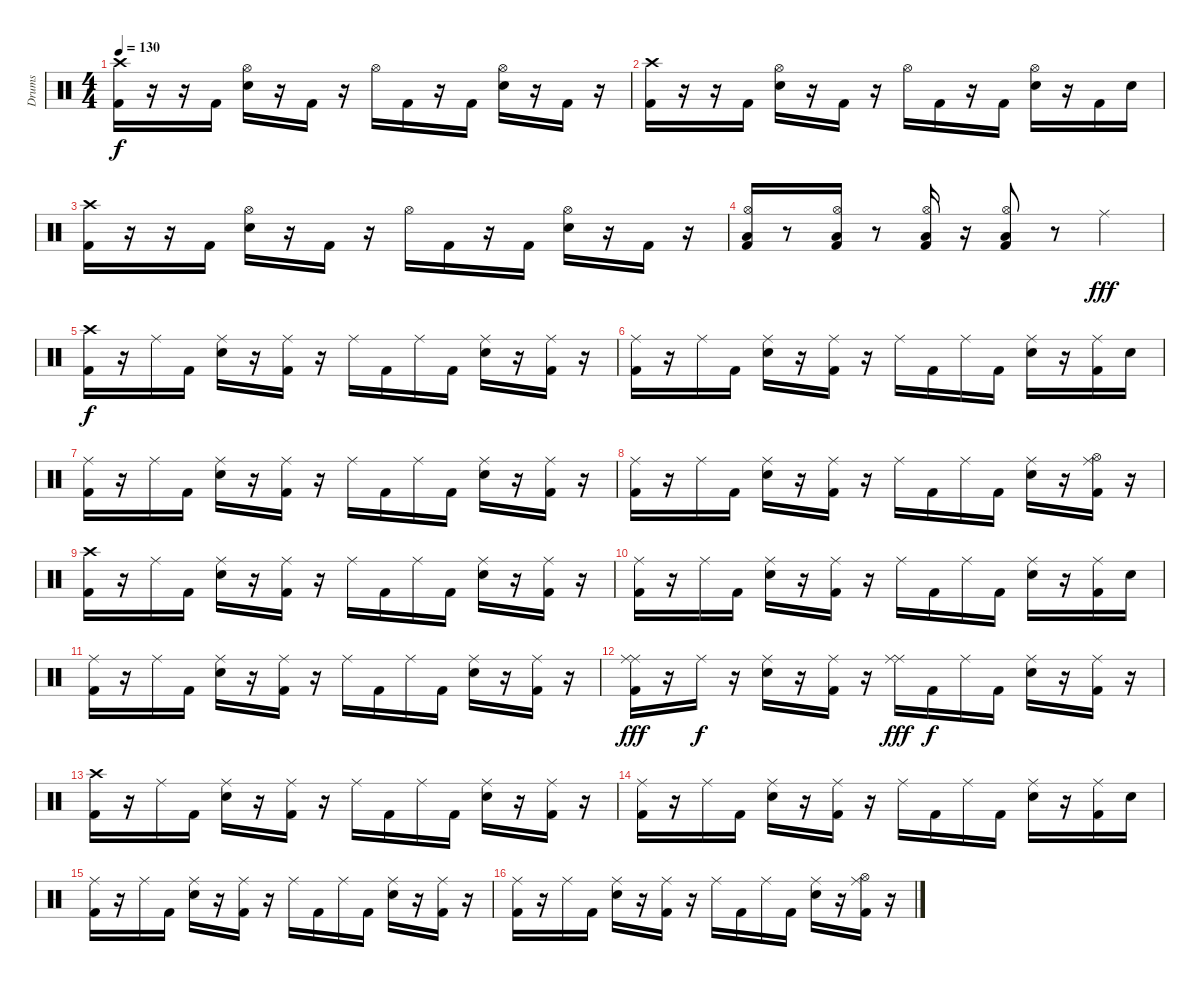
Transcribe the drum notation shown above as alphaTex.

\track ("Drums" "Drums") {instrument percussion}
\staff {score}
\articulation defaults
\ts (4 4)
\tempo 130
\clef neutral
\ks c
("Crash high (hit)" "Kick (hit) 2").16{dy f} r.16 r.16 "Kick (hit) 2".16 ("Hi-Hat (open)" "Electric Snare (hit)").16 r.16 "Kick (hit) 2".16 r.16 "Hi-Hat (open)".16 "Kick (hit) 2".16 r.16 "Kick (hit) 2".16 ("Hi-Hat (open)" "Electric Snare (hit)").16 r.16 "Kick (hit) 2".16 r.16 |
("Crash high (hit)" "Kick (hit) 2").16 r.16 r.16 "Kick (hit) 2".16 ("Hi-Hat (open)" "Electric Snare (hit)").16 r.16 "Kick (hit) 2".16 r.16 "Hi-Hat (open)".16 "Kick (hit) 2".16 r.16 "Kick (hit) 2".16 ("Hi-Hat (open)" "Electric Snare (hit)").16 r.16 "Kick (hit) 2".16 "Electric Snare (hit)".16 |
("Crash high (hit)" "Kick (hit) 2").16 r.16 r.16 "Kick (hit) 2".16 ("Hi-Hat (open)" "Electric Snare (hit)").16 r.16 "Kick (hit) 2".16 r.16 "Hi-Hat (open)".16 "Kick (hit) 2".16 r.16 "Kick (hit) 2".16 ("Hi-Hat (open)" "Electric Snare (hit)").16 r.16 "Kick (hit) 2".16 r.16 |
("Hi-Hat (open)" "Low Tom (hit)" "Kick (hit) 2").16 r.8 ("Hi-Hat (open)" "Low Tom (hit)" "Kick (hit) 2").16 r.8 ("Hi-Hat (open)" "Low Tom (hit)" "Kick (hit) 2").16 r.16 ("Hi-Hat (open)" "Low Tom (hit)" "Kick (hit) 2").8 r.8 "Ride (middle)".4{dy fff} |
("Crash high (hit)" "Kick (hit) 2").16{dy f} r.16 "Ride (middle)".16 "Kick (hit) 2".16 ("Ride (middle)" "Electric Snare (hit)").16 r.16 ("Ride (middle)" "Kick (hit) 2").16 r.16 "Ride (middle)".16 "Kick (hit) 2".16 "Ride (middle)".16 "Kick (hit) 2".16 ("Ride (middle)" "Electric Snare (hit)").16 r.16 ("Ride (middle)" "Kick (hit) 2").16 r.16 |
("Ride (middle)" "Kick (hit) 2").16 r.16 "Ride (middle)".16 "Kick (hit) 2".16 ("Ride (middle)" "Electric Snare (hit)").16 r.16 ("Ride (middle)" "Kick (hit) 2").16 r.16 "Ride (middle)".16 "Kick (hit) 2".16 "Ride (middle)".16 "Kick (hit) 2".16 ("Ride (middle)" "Electric Snare (hit)").16 r.16 ("Ride (middle)" "Kick (hit) 2").16 "Electric Snare (hit)".16 |
("Ride (middle)" "Kick (hit) 2").16 r.16 "Ride (middle)".16 "Kick (hit) 2".16 ("Ride (middle)" "Electric Snare (hit)").16 r.16 ("Ride (middle)" "Kick (hit) 2").16 r.16 "Ride (middle)".16 "Kick (hit) 2".16 "Ride (middle)".16 "Kick (hit) 2".16 ("Ride (middle)" "Electric Snare (hit)").16 r.16 ("Ride (middle)" "Kick (hit) 2").16 r.16 |
("Ride (middle)" "Kick (hit) 2").16 r.16 "Ride (middle)".16 "Kick (hit) 2".16 ("Ride (middle)" "Electric Snare (hit)").16 r.16 ("Ride (middle)" "Kick (hit) 2").16 r.16 "Ride (middle)".16 "Kick (hit) 2".16 "Ride (middle)".16 "Kick (hit) 2".16 ("Ride (middle)" "Electric Snare (hit)").16 r.16 ("Hi-Hat (open)" "Ride (middle)" "Kick (hit) 2").16 r.16 |
("Crash high (hit)" "Kick (hit) 2").16 r.16 "Ride (middle)".16 "Kick (hit) 2".16 ("Ride (middle)" "Electric Snare (hit)").16 r.16 ("Ride (middle)" "Kick (hit) 2").16 r.16 "Ride (middle)".16 "Kick (hit) 2".16 "Ride (middle)".16 "Kick (hit) 2".16 ("Ride (middle)" "Electric Snare (hit)").16 r.16 ("Ride (middle)" "Kick (hit) 2").16 r.16 |
("Ride (middle)" "Kick (hit) 2").16 r.16 "Ride (middle)".16 "Kick (hit) 2".16 ("Ride (middle)" "Electric Snare (hit)").16 r.16 ("Ride (middle)" "Kick (hit) 2").16 r.16 "Ride (middle)".16 "Kick (hit) 2".16 "Ride (middle)".16 "Kick (hit) 2".16 ("Ride (middle)" "Electric Snare (hit)").16 r.16 ("Ride (middle)" "Kick (hit) 2").16 "Electric Snare (hit)".16 |
("Ride (middle)" "Kick (hit) 2").16 r.16 "Ride (middle)".16 "Kick (hit) 2".16 ("Ride (middle)" "Electric Snare (hit)").16 r.16 ("Ride (middle)" "Kick (hit) 2").16 r.16 "Ride (middle)".16 "Kick (hit) 2".16 "Ride (middle)".16 "Kick (hit) 2".16 ("Ride (middle)" "Electric Snare (hit)").16 r.16 ("Ride (middle)" "Kick (hit) 2").16 r.16 |
("Ride (middle)" "Ride (middle)" "Kick (hit) 2").16{dy fff} r.16 "Ride (middle)".16{dy f} r.16 ("Ride (middle)" "Electric Snare (hit)").16 r.16 ("Ride (middle)" "Kick (hit) 2").16 r.16 ("Ride (middle)" "Ride (middle)").16{dy fff} "Kick (hit) 2".16{dy f} "Ride (middle)".16 "Kick (hit) 2".16 ("Ride (middle)" "Electric Snare (hit)").16 r.16 ("Ride (middle)" "Kick (hit) 2").16 r.16 |
("Crash high (hit)" "Kick (hit) 2").16 r.16 "Ride (middle)".16 "Kick (hit) 2".16 ("Ride (middle)" "Electric Snare (hit)").16 r.16 ("Ride (middle)" "Kick (hit) 2").16 r.16 "Ride (middle)".16 "Kick (hit) 2".16 "Ride (middle)".16 "Kick (hit) 2".16 ("Ride (middle)" "Electric Snare (hit)").16 r.16 ("Ride (middle)" "Kick (hit) 2").16 r.16 |
("Ride (middle)" "Kick (hit) 2").16 r.16 "Ride (middle)".16 "Kick (hit) 2".16 ("Ride (middle)" "Electric Snare (hit)").16 r.16 ("Ride (middle)" "Kick (hit) 2").16 r.16 "Ride (middle)".16 "Kick (hit) 2".16 "Ride (middle)".16 "Kick (hit) 2".16 ("Ride (middle)" "Electric Snare (hit)").16 r.16 ("Ride (middle)" "Kick (hit) 2").16 "Electric Snare (hit)".16 |
("Ride (middle)" "Kick (hit) 2").16 r.16 "Ride (middle)".16 "Kick (hit) 2".16 ("Ride (middle)" "Electric Snare (hit)").16 r.16 ("Ride (middle)" "Kick (hit) 2").16 r.16 "Ride (middle)".16 "Kick (hit) 2".16 "Ride (middle)".16 "Kick (hit) 2".16 ("Ride (middle)" "Electric Snare (hit)").16 r.16 ("Ride (middle)" "Kick (hit) 2").16 r.16 |
("Ride (middle)" "Kick (hit) 2").16 r.16 "Ride (middle)".16 "Kick (hit) 2".16 ("Ride (middle)" "Electric Snare (hit)").16 r.16 ("Ride (middle)" "Kick (hit) 2").16 r.16 "Ride (middle)".16 "Kick (hit) 2".16 "Ride (middle)".16 "Kick (hit) 2".16 ("Ride (middle)" "Electric Snare (hit)").16 r.16 ("Hi-Hat (open)" "Ride (middle)" "Kick (hit) 2").16 r.16
